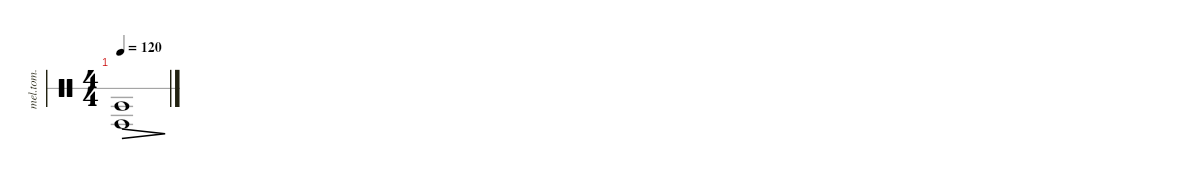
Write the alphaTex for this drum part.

\defaultSystemsLayout 4
\hideDynamics
\bracketExtendMode nobrackets
\otherSystemsTrackNameOrientation horizontal
\track ("Melodic Tom" "mel.tom.") {instrument percussion}
\staff {score 1}
\articulation defaults
\ts (4 4)
\tempo 120
\clef neutral
\ks c
("Kick (hit)" "Mid Tom (hit)").1{dec dy mf beam Up}
